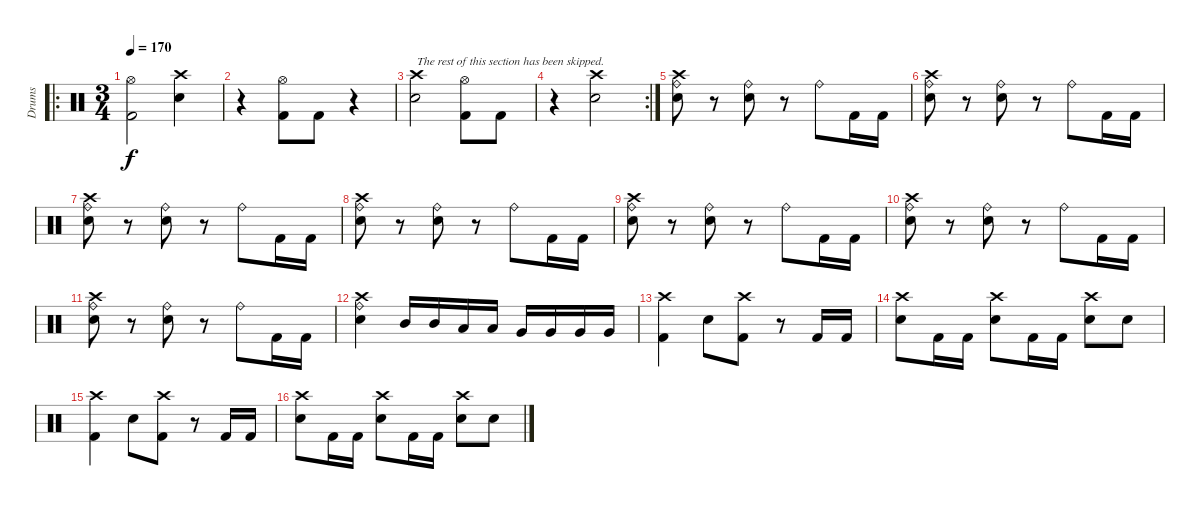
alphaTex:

\track ("Drums" "Drums") {instrument percussion}
\staff {score}
\articulation defaults
\ro
\ts (3 4)
\tempo 170
\clef neutral
\ks c
("Hi-Hat (open)" "Kick (hit) 2").2{dy f} ("Crash high (hit)" "Electric Snare (hit)").4 |
r.4 ("Hi-Hat (open)" "Kick (hit) 2").8 "Kick (hit) 2".8 r.4 |
("Crash high (hit)" "Electric Snare (hit)").2{txt "The rest of this section has been skipped."} ("Hi-Hat (open)" "Kick (hit) 2").8 "Kick (hit) 2".8 |
\rc 2
r.4 ("Crash high (hit)" "Electric Snare (hit)").2 |
("Ride (bell)" "Electric Snare (hit)" "Crash high (hit)").8 r.8 ("Ride (bell)" "Electric Snare (hit)").8 r.8 "Ride (bell)".8 "Kick (hit) 2".16 "Kick (hit) 2".16 |
("Ride (bell)" "Electric Snare (hit)" "Crash high (hit)").8 r.8 ("Ride (bell)" "Electric Snare (hit)").8 r.8 "Ride (bell)".8 "Kick (hit) 2".16 "Kick (hit) 2".16 |
("Ride (bell)" "Electric Snare (hit)" "Crash high (hit)").8 r.8 ("Ride (bell)" "Electric Snare (hit)").8 r.8 "Ride (bell)".8 "Kick (hit) 2".16 "Kick (hit) 2".16 |
("Ride (bell)" "Electric Snare (hit)" "Crash high (hit)").8 r.8 ("Ride (bell)" "Electric Snare (hit)").8 r.8 "Ride (bell)".8 "Kick (hit) 2".16 "Kick (hit) 2".16 |
("Ride (bell)" "Electric Snare (hit)" "Crash high (hit)").8 r.8 ("Ride (bell)" "Electric Snare (hit)").8 r.8 "Ride (bell)".8 "Kick (hit) 2".16 "Kick (hit) 2".16 |
("Ride (bell)" "Electric Snare (hit)" "Crash high (hit)").8 r.8 ("Ride (bell)" "Electric Snare (hit)").8 r.8 "Ride (bell)".8 "Kick (hit) 2".16 "Kick (hit) 2".16 |
("Ride (bell)" "Electric Snare (hit)" "Crash high (hit)").8 r.8 ("Ride (bell)" "Electric Snare (hit)").8 r.8 "Ride (bell)".8 "Kick (hit) 2".16 "Kick (hit) 2".16 |
("Ride (bell)" "Electric Snare (hit)" "Crash high (hit)").4 "Mid Tom (hit)".16 "Mid Tom (hit)".16 "Low Tom (hit)".16 "Low Tom (hit)".16 "Very Low Tom (hit)".16 "Very Low Tom (hit)".16 "Very Low Tom (hit)".16 "Very Low Tom (hit)".16 |
("Crash high (hit)" "Kick (hit) 2").4 "Electric Snare (hit)".8 ("Crash high (hit)" "Kick (hit) 2").8 r.8 "Kick (hit) 2".16 "Kick (hit) 2".16 |
("Crash high (hit)" "Electric Snare (hit)").8 "Kick (hit) 2".16 "Kick (hit) 2".16 ("Crash high (hit)" "Electric Snare (hit)").8 "Kick (hit) 2".16 "Kick (hit) 2".16 ("Crash high (hit)" "Electric Snare (hit)").8 "Electric Snare (hit)".8 |
("Crash high (hit)" "Kick (hit) 2").4 "Electric Snare (hit)".8 ("Crash high (hit)" "Kick (hit) 2").8 r.8 "Kick (hit) 2".16 "Kick (hit) 2".16 |
("Crash high (hit)" "Electric Snare (hit)").8 "Kick (hit) 2".16 "Kick (hit) 2".16 ("Crash high (hit)" "Electric Snare (hit)").8 "Kick (hit) 2".16 "Kick (hit) 2".16 ("Crash high (hit)" "Electric Snare (hit)").8 "Electric Snare (hit)".8
